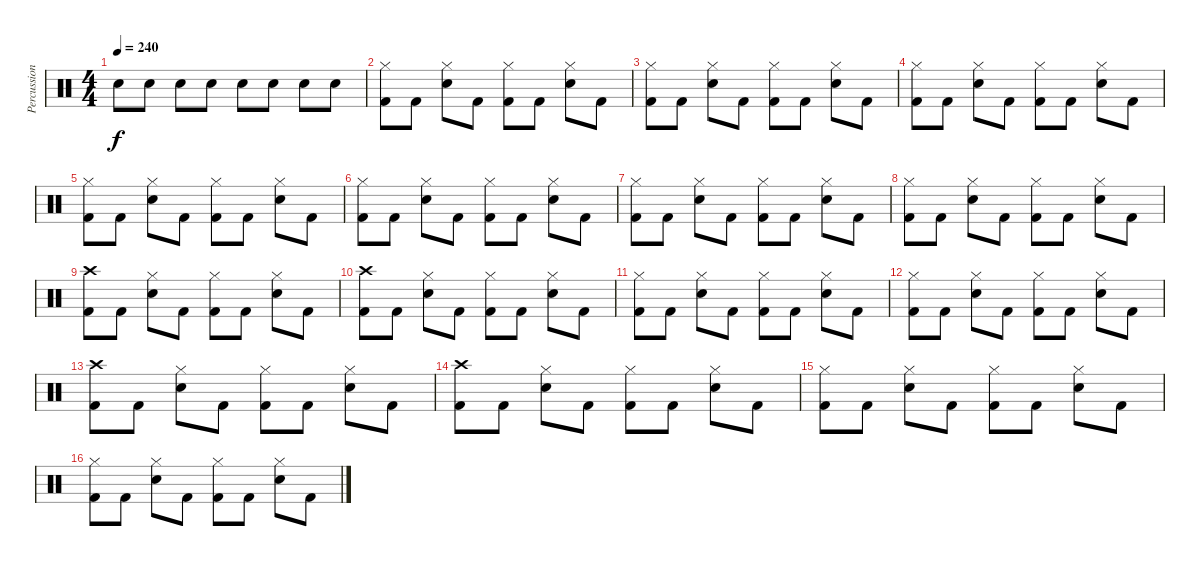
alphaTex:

\track ("Percussion" "Percussion") {instrument percussion}
\staff {score}
\articulation defaults
\ts (4 4)
\tempo 240
\clef neutral
\ks c "Snare (hit) 2".8{dy f} "Snare (hit) 2".8 "Snare (hit) 2".8 "Snare (hit) 2".8 "Snare (hit) 2".8 "Snare (hit) 2".8 "Snare (hit) 2".8 "Snare (hit) 2".8
|
("Kick (hit) 2" "Hi-Hat (closed)").8 "Kick (hit) 2".8 ("Snare (hit) 2" "Hi-Hat (closed)").8 "Kick (hit) 2".8 ("Kick (hit) 2" "Hi-Hat (closed)").8 "Kick (hit) 2".8 ("Snare (hit) 2" "Hi-Hat (closed)").8 "Kick (hit) 2".8 |
("Kick (hit) 2" "Hi-Hat (closed)").8 "Kick (hit) 2".8 ("Snare (hit) 2" "Hi-Hat (closed)").8 "Kick (hit) 2".8 ("Kick (hit) 2" "Hi-Hat (closed)").8 "Kick (hit) 2".8 ("Snare (hit) 2" "Hi-Hat (closed)").8 "Kick (hit) 2".8 |
("Kick (hit) 2" "Hi-Hat (closed)").8 "Kick (hit) 2".8 ("Snare (hit) 2" "Hi-Hat (closed)").8 "Kick (hit) 2".8 ("Kick (hit) 2" "Hi-Hat (closed)").8 "Kick (hit) 2".8 ("Snare (hit) 2" "Hi-Hat (closed)").8 "Kick (hit) 2".8 |
("Kick (hit) 2" "Hi-Hat (closed)").8 "Kick (hit) 2".8 ("Snare (hit) 2" "Hi-Hat (closed)").8 "Kick (hit) 2".8 ("Kick (hit) 2" "Hi-Hat (closed)").8 "Kick (hit) 2".8 ("Snare (hit) 2" "Hi-Hat (closed)").8 "Kick (hit) 2".8 |
("Kick (hit) 2" "Hi-Hat (closed)").8 "Kick (hit) 2".8 ("Snare (hit) 2" "Hi-Hat (closed)").8 "Kick (hit) 2".8 ("Kick (hit) 2" "Hi-Hat (closed)").8 "Kick (hit) 2".8 ("Snare (hit) 2" "Hi-Hat (closed)").8 "Kick (hit) 2".8 |
("Kick (hit) 2" "Hi-Hat (closed)").8 "Kick (hit) 2".8 ("Snare (hit) 2" "Hi-Hat (closed)").8 "Kick (hit) 2".8 ("Kick (hit) 2" "Hi-Hat (closed)").8 "Kick (hit) 2".8 ("Snare (hit) 2" "Hi-Hat (closed)").8 "Kick (hit) 2".8 |
("Kick (hit) 2" "Hi-Hat (closed)").8 "Kick (hit) 2".8 ("Snare (hit) 2" "Hi-Hat (closed)").8 "Kick (hit) 2".8 ("Kick (hit) 2" "Hi-Hat (closed)").8 "Kick (hit) 2".8 ("Snare (hit) 2" "Hi-Hat (closed)").8 "Kick (hit) 2".8 |
("Kick (hit) 2" "Crash high (hit)").8 "Kick (hit) 2".8 ("Snare (hit) 2" "Hi-Hat (closed)").8 "Kick (hit) 2".8 ("Kick (hit) 2" "Hi-Hat (closed)").8 "Kick (hit) 2".8 ("Snare (hit) 2" "Hi-Hat (closed)").8 "Kick (hit) 2".8 |
("Kick (hit) 2" "Crash high (hit)").8 "Kick (hit) 2".8 ("Snare (hit) 2" "Hi-Hat (closed)").8 "Kick (hit) 2".8 ("Kick (hit) 2" "Hi-Hat (closed)").8 "Kick (hit) 2".8 ("Snare (hit) 2" "Hi-Hat (closed)").8 "Kick (hit) 2".8 |
("Kick (hit) 2" "Hi-Hat (closed)").8 "Kick (hit) 2".8 ("Snare (hit) 2" "Hi-Hat (closed)").8 "Kick (hit) 2".8 ("Kick (hit) 2" "Hi-Hat (closed)").8 "Kick (hit) 2".8 ("Snare (hit) 2" "Hi-Hat (closed)").8 "Kick (hit) 2".8 |
("Kick (hit) 2" "Hi-Hat (closed)").8 "Kick (hit) 2".8 ("Snare (hit) 2" "Hi-Hat (closed)").8 "Kick (hit) 2".8 ("Kick (hit) 2" "Hi-Hat (closed)").8 "Kick (hit) 2".8 ("Snare (hit) 2" "Hi-Hat (closed)").8 "Kick (hit) 2".8 |
("Kick (hit) 2" "Crash high (hit)").8 "Kick (hit) 2".8 ("Snare (hit) 2" "Hi-Hat (closed)").8 "Kick (hit) 2".8 ("Kick (hit) 2" "Hi-Hat (closed)").8 "Kick (hit) 2".8 ("Snare (hit) 2" "Hi-Hat (closed)").8 "Kick (hit) 2".8 |
("Kick (hit) 2" "Crash high (hit)").8 "Kick (hit) 2".8 ("Snare (hit) 2" "Hi-Hat (closed)").8 "Kick (hit) 2".8 ("Kick (hit) 2" "Hi-Hat (closed)").8 "Kick (hit) 2".8 ("Snare (hit) 2" "Hi-Hat (closed)").8 "Kick (hit) 2".8 |
("Kick (hit) 2" "Hi-Hat (closed)").8 "Kick (hit) 2".8 ("Snare (hit) 2" "Hi-Hat (closed)").8 "Kick (hit) 2".8 ("Kick (hit) 2" "Hi-Hat (closed)").8 "Kick (hit) 2".8 ("Snare (hit) 2" "Hi-Hat (closed)").8 "Kick (hit) 2".8 |
("Kick (hit) 2" "Hi-Hat (closed)").8 "Kick (hit) 2".8 ("Snare (hit) 2" "Hi-Hat (closed)").8 "Kick (hit) 2".8 ("Kick (hit) 2" "Hi-Hat (closed)").8 "Kick (hit) 2".8 ("Snare (hit) 2" "Hi-Hat (closed)").8 "Kick (hit) 2".8
